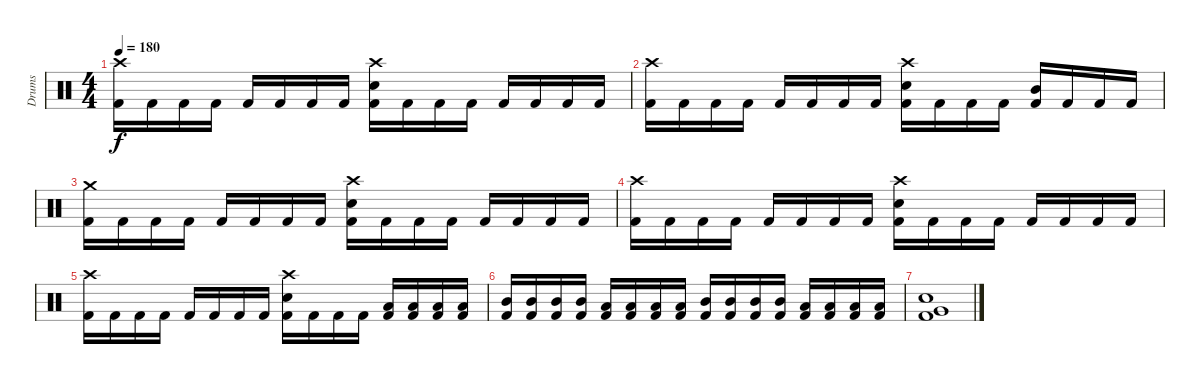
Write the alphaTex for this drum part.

\track ("Drums" "Drums") {instrument percussion}
\staff {score}
\articulation defaults
\ts (4 4)
\tempo 180
\clef neutral
\ks c
("Crash high (hit)" "Kick (hit) 2").16{dy f} "Kick (hit) 2".16 "Kick (hit) 2".16 "Kick (hit) 2".16 "Kick (hit) 2".16 "Kick (hit) 2".16 "Kick (hit) 2".16 "Kick (hit) 2".16 ("Crash high (hit)" "Electric Snare (hit)" "Kick (hit) 2").16 "Kick (hit) 2".16 "Kick (hit) 2".16 "Kick (hit) 2".16 "Kick (hit) 2".16 "Kick (hit) 2".16 "Kick (hit) 2".16 "Kick (hit) 2".16 |
("Crash high (hit)" "Kick (hit) 2").16 "Kick (hit) 2".16 "Kick (hit) 2".16 "Kick (hit) 2".16 "Kick (hit) 2".16 "Kick (hit) 2".16 "Kick (hit) 2".16 "Kick (hit) 2".16 ("Crash high (hit)" "Electric Snare (hit)" "Kick (hit) 2").16 "Kick (hit) 2".16 "Kick (hit) 2".16 "Kick (hit) 2".16 ("Mid Tom (hit)" "Kick (hit) 2").16 "Kick (hit) 2".16 "Kick (hit) 2".16 "Kick (hit) 2".16 |
("Crash medium (hit)" "Kick (hit) 2").16 "Kick (hit) 2".16 "Kick (hit) 2".16 "Kick (hit) 2".16 "Kick (hit) 2".16 "Kick (hit) 2".16 "Kick (hit) 2".16 "Kick (hit) 2".16 ("Crash high (hit)" "Electric Snare (hit)" "Kick (hit) 2").16 "Kick (hit) 2".16 "Kick (hit) 2".16 "Kick (hit) 2".16 "Kick (hit) 2".16 "Kick (hit) 2".16 "Kick (hit) 2".16 "Kick (hit) 2".16 |
("Crash high (hit)" "Kick (hit) 2").16 "Kick (hit) 2".16 "Kick (hit) 2".16 "Kick (hit) 2".16 "Kick (hit) 2".16 "Kick (hit) 2".16 "Kick (hit) 2".16 "Kick (hit) 2".16 ("Crash high (hit)" "Electric Snare (hit)" "Kick (hit) 2").16 "Kick (hit) 2".16 "Kick (hit) 2".16 "Kick (hit) 2".16 "Kick (hit) 2".16 "Kick (hit) 2".16 "Kick (hit) 2".16 "Kick (hit) 2".16 |
("Crash high (hit)" "Kick (hit) 2").16 "Kick (hit) 2".16 "Kick (hit) 2".16 "Kick (hit) 2".16 "Kick (hit) 2".16 "Kick (hit) 2".16 "Kick (hit) 2".16 "Kick (hit) 2".16 ("Crash high (hit)" "Electric Snare (hit)" "Kick (hit) 2").16 "Kick (hit) 2".16 "Kick (hit) 2".16 "Kick (hit) 2".16 ("Low Tom (hit)" "Kick (hit) 2").16 ("Low Tom (hit)" "Kick (hit) 2").16 ("Low Tom (hit)" "Kick (hit) 2").16 ("Low Tom (hit)" "Kick (hit) 2").16 |
("Mid Tom (hit)" "Kick (hit) 2").16 ("Mid Tom (hit)" "Kick (hit) 2").16 ("Mid Tom (hit)" "Kick (hit) 2").16 ("Mid Tom (hit)" "Kick (hit) 2").16 ("Low Tom (hit)" "Kick (hit) 2").16 ("Low Tom (hit)" "Kick (hit) 2").16 ("Low Tom (hit)" "Kick (hit) 2").16 ("Low Tom (hit)" "Kick (hit) 2").16 ("Mid Tom (hit)" "Kick (hit) 2").16 ("Mid Tom (hit)" "Kick (hit) 2").16 ("Mid Tom (hit)" "Kick (hit) 2").16 ("Mid Tom (hit)" "Kick (hit) 2").16 ("Low Tom (hit)" "Kick (hit) 2").16 ("Low Tom (hit)" "Kick (hit) 2").16 ("Low Tom (hit)" "Kick (hit) 2").16 ("Low Tom (hit)" "Kick (hit) 2").16 |
("Electric Snare (hit)" "Very Low Tom (hit)" "Kick (hit) 2").1
